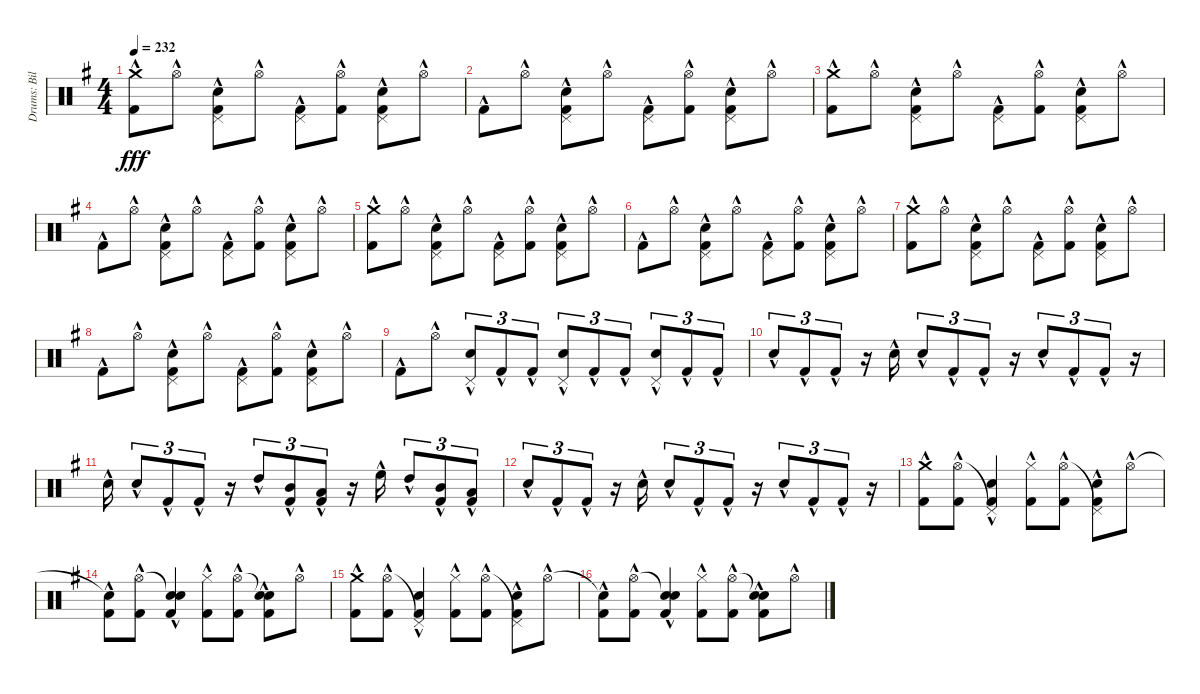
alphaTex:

\track ("Drums: Bill" "Drums: Bil") {instrument percussion}
\staff {score}
\articulation defaults
\ts (4 4)
\tempo 232
\clef neutral
\ks g
("Crash medium (hit)"{hac} "Kick (hit) 2"{hac}).8{dy fff} "Hi-Hat (open)"{hac}.8 ("Pedal Hi-Hat (hit)"{hac} "Snare (hit) 2"{hac} "Kick (hit) 2"{hac}).8 "Hi-Hat (open)"{hac}.8 ("Pedal Hi-Hat (hit)"{hac} "Kick (hit) 2"{hac}).8 ("Hi-Hat (open)"{hac} "Kick (hit) 2"{hac}).8 ("Pedal Hi-Hat (hit)"{hac} "Snare (hit) 2"{hac} "Kick (hit) 2"{hac}).8 "Hi-Hat (open)"{hac}.8 |
"Kick (hit) 2"{hac}.8 "Hi-Hat (open)"{hac}.8 ("Pedal Hi-Hat (hit)"{hac} "Snare (hit) 2"{hac} "Kick (hit) 2"{hac}).8 "Hi-Hat (open)"{hac}.8 ("Pedal Hi-Hat (hit)"{hac} "Kick (hit) 2"{hac}).8 ("Hi-Hat (open)"{hac} "Kick (hit) 2"{hac}).8 ("Pedal Hi-Hat (hit)"{hac} "Snare (hit) 2"{hac} "Kick (hit) 2"{hac}).8 "Hi-Hat (open)"{hac}.8 |
("Crash medium (hit)"{hac} "Kick (hit) 2"{hac}).8 "Hi-Hat (open)"{hac}.8 ("Pedal Hi-Hat (hit)"{hac} "Snare (hit) 2"{hac} "Kick (hit) 2"{hac}).8 "Hi-Hat (open)"{hac}.8 ("Pedal Hi-Hat (hit)"{hac} "Kick (hit) 2"{hac}).8 ("Hi-Hat (open)"{hac} "Kick (hit) 2"{hac}).8 ("Pedal Hi-Hat (hit)"{hac} "Snare (hit) 2"{hac} "Kick (hit) 2"{hac}).8 "Hi-Hat (open)"{hac}.8 |
"Kick (hit) 2"{hac}.8 "Hi-Hat (open)"{hac}.8 ("Pedal Hi-Hat (hit)"{hac} "Snare (hit) 2"{hac} "Kick (hit) 2"{hac}).8 "Hi-Hat (open)"{hac}.8 ("Pedal Hi-Hat (hit)"{hac} "Kick (hit) 2"{hac}).8 ("Hi-Hat (open)"{hac} "Kick (hit) 2"{hac}).8 ("Pedal Hi-Hat (hit)"{hac} "Snare (hit) 2"{hac} "Kick (hit) 2"{hac}).8 "Hi-Hat (open)"{hac}.8 |
("Crash medium (hit)"{hac} "Kick (hit) 2"{hac}).8 "Hi-Hat (open)"{hac}.8 ("Pedal Hi-Hat (hit)"{hac} "Snare (hit) 2"{hac} "Kick (hit) 2"{hac}).8 "Hi-Hat (open)"{hac}.8 ("Pedal Hi-Hat (hit)"{hac} "Kick (hit) 2"{hac}).8 ("Hi-Hat (open)"{hac} "Kick (hit) 2"{hac}).8 ("Pedal Hi-Hat (hit)"{hac} "Snare (hit) 2"{hac} "Kick (hit) 2"{hac}).8 "Hi-Hat (open)"{hac}.8 |
"Kick (hit) 2"{hac}.8 "Hi-Hat (open)"{hac}.8 ("Pedal Hi-Hat (hit)"{hac} "Snare (hit) 2"{hac} "Kick (hit) 2"{hac}).8 "Hi-Hat (open)"{hac}.8 ("Pedal Hi-Hat (hit)"{hac} "Kick (hit) 2"{hac}).8 ("Hi-Hat (open)"{hac} "Kick (hit) 2"{hac}).8 ("Pedal Hi-Hat (hit)"{hac} "Snare (hit) 2"{hac} "Kick (hit) 2"{hac}).8 "Hi-Hat (open)"{hac}.8 |
("Crash medium (hit)"{hac} "Kick (hit) 2"{hac}).8 "Hi-Hat (open)"{hac}.8 ("Pedal Hi-Hat (hit)"{hac} "Snare (hit) 2"{hac} "Kick (hit) 2"{hac}).8 "Hi-Hat (open)"{hac}.8 ("Pedal Hi-Hat (hit)"{hac} "Kick (hit) 2"{hac}).8 ("Hi-Hat (open)"{hac} "Kick (hit) 2"{hac}).8 ("Pedal Hi-Hat (hit)"{hac} "Snare (hit) 2"{hac} "Kick (hit) 2"{hac}).8 "Hi-Hat (open)"{hac}.8 |
"Kick (hit) 2"{hac}.8 "Hi-Hat (open)"{hac}.8 ("Pedal Hi-Hat (hit)"{hac} "Snare (hit) 2"{hac} "Kick (hit) 2"{hac}).8 "Hi-Hat (open)"{hac}.8 ("Pedal Hi-Hat (hit)"{hac} "Kick (hit) 2"{hac}).8 ("Hi-Hat (open)"{hac} "Kick (hit) 2"{hac}).8 ("Pedal Hi-Hat (hit)"{hac} "Snare (hit) 2"{hac} "Kick (hit) 2"{hac}).8 "Hi-Hat (open)"{hac}.8 |
"Kick (hit) 2"{hac}.8 "Hi-Hat (open)"{hac}.8 ("Pedal Hi-Hat (hit)"{hac} "Snare (hit) 2"{hac}).8{tu (3 2)} "Kick (hit) 2"{hac}.8{tu (3 2)} "Kick (hit) 2"{hac}.8{tu (3 2)} ("Pedal Hi-Hat (hit)"{hac} "Snare (hit) 2"{hac}).8{tu (3 2)} "Kick (hit) 2"{hac}.8{tu (3 2)} "Kick (hit) 2"{hac}.8{tu (3 2)} ("Pedal Hi-Hat (hit)"{hac} "Snare (hit) 2"{hac}).8{tu (3 2)} "Kick (hit) 2"{hac}.8{tu (3 2)} "Kick (hit) 2"{hac}.8{tu (3 2)} |
"Electric Snare (hit)"{hac}.8{tu (3 2)} "Kick (hit) 2"{hac}.8{tu (3 2)} "Kick (hit) 2"{hac}.8{tu (3 2)} r.16 "Electric Snare (hit)"{hac}.16 "Electric Snare (hit)"{hac}.8{tu (3 2)} "Kick (hit) 2"{hac}.8{tu (3 2)} "Kick (hit) 2"{hac}.8{tu (3 2)} r.16 "Electric Snare (hit)"{hac}.8{tu (3 2)} "Kick (hit) 2"{hac}.8{tu (3 2)} "Kick (hit) 2"{hac}.8{tu (3 2)} r.16 |
"Electric Snare (hit)"{hac}.16 "Electric Snare (hit)"{hac}.8{tu (3 2)} "Kick (hit) 2"{hac}.8{tu (3 2)} "Kick (hit) 2"{hac}.8{tu (3 2)} r.16 "High Tom (hit)"{hac}.8{tu (3 2)} ("Mid Tom (hit)"{hac} "Kick (hit) 2"{hac}).8{tu (3 2)} ("Low Tom (hit)"{hac} "Kick (hit) 2"{hac}).8{tu (3 2)} r.16 "High Floor Tom (hit)"{hac}.16 "High Tom (hit)"{hac}.8{tu (3 2)} ("Mid Tom (hit)"{hac} "Kick (hit) 2"{hac}).8{tu (3 2)} ("Low Tom (hit)"{hac} "Kick (hit) 2"{hac}).8{tu (3 2)} |
"Electric Snare (hit)"{hac}.8{tu (3 2)} "Kick (hit) 2"{hac}.8{tu (3 2)} "Kick (hit) 2"{hac}.8{tu (3 2)} r.16 "Electric Snare (hit)"{hac}.16 "Electric Snare (hit)"{hac}.8{tu (3 2)} "Kick (hit) 2"{hac}.8{tu (3 2)} "Kick (hit) 2"{hac}.8{tu (3 2)} r.16 "Electric Snare (hit)"{hac}.8{tu (3 2)} "Kick (hit) 2"{hac}.8{tu (3 2)} "Kick (hit) 2"{hac}.8{tu (3 2)} r.16 |
("Crash medium (hit)"{hac} "Kick (hit) 2"{hac}).8 ("Hi-Hat (open)"{hac} "Kick (hit) 2"{hac}).8 ("Pedal Hi-Hat (hit)"{t} "Snare (hit) 2"{hac} "Kick (hit) 2"{hac}).4 ("Hi-Hat (closed)"{hac} "Kick (hit) 2"{hac}).8 ("Hi-Hat (open)"{hac} "Kick (hit) 2"{hac}).8 ("Pedal Hi-Hat (hit)"{t} "Snare (hit) 2"{hac} "Kick (hit) 2"{hac}).8 "Hi-Hat (open)"{hac}.8 |
("Snare (hit)"{t} "Kick (hit) 2"{hac}).8 ("Hi-Hat (open)"{hac} "Kick (hit) 2"{hac}).8 ("Snare (hit)"{t} "Snare (hit) 2"{hac} "Kick (hit) 2"{hac}).4 ("Hi-Hat (closed)"{hac} "Kick (hit) 2"{hac}).8 ("Hi-Hat (open)"{hac} "Kick (hit) 2"{hac}).8 ("Snare (hit)"{t} "Snare (hit) 2"{hac} "Kick (hit) 2"{hac}).8 "Hi-Hat (open)"{hac}.8 |
("Crash medium (hit)"{hac} "Kick (hit) 2"{hac}).8 ("Hi-Hat (open)"{hac} "Kick (hit) 2"{hac}).8 ("Pedal Hi-Hat (hit)"{t} "Snare (hit) 2"{hac} "Kick (hit) 2"{hac}).4 ("Hi-Hat (closed)"{hac} "Kick (hit) 2"{hac}).8 ("Hi-Hat (open)"{hac} "Kick (hit) 2"{hac}).8 ("Pedal Hi-Hat (hit)"{t} "Snare (hit) 2"{hac} "Kick (hit) 2"{hac}).8 "Hi-Hat (open)"{hac}.8 |
("Snare (hit)"{t} "Kick (hit) 2"{hac}).8 ("Hi-Hat (open)"{hac} "Kick (hit) 2"{hac}).8 ("Snare (hit)"{t} "Snare (hit) 2"{hac} "Kick (hit) 2"{hac}).4 ("Hi-Hat (closed)"{hac} "Kick (hit) 2"{hac}).8 ("Hi-Hat (open)"{hac} "Kick (hit) 2"{hac}).8 ("Snare (hit)"{t} "Snare (hit) 2"{hac} "Kick (hit) 2"{hac}).8 "Hi-Hat (open)"{hac}.8
